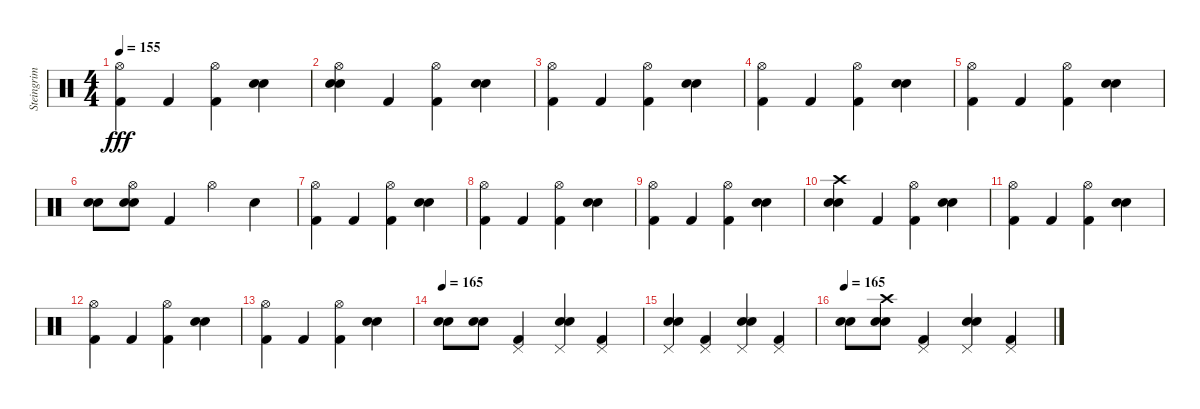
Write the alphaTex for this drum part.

\track ("Steingrim" "Steingrim") {instrument percussion}
\staff {score}
\articulation defaults
\ts (4 4)
\tempo 155
\clef neutral
\ks c
("Hi-Hat (open)" "Kick (hit) 2").4{dy fff} "Kick (hit) 2".4 ("Hi-Hat (open)" "Kick (hit) 2").4 ("Snare (hit) 2" "Electric Snare (hit)").4 |
("Hi-Hat (open)" "Electric Snare (hit)" "Snare (hit) 2").4 "Kick (hit) 2".4 ("Hi-Hat (open)" "Kick (hit) 2").4 ("Snare (hit) 2" "Electric Snare (hit)").4 |
("Hi-Hat (open)" "Kick (hit) 2").4 "Kick (hit) 2".4 ("Hi-Hat (open)" "Kick (hit) 2").4 ("Snare (hit) 2" "Electric Snare (hit)").4 |
("Hi-Hat (open)" "Kick (hit) 2").4 "Kick (hit) 2".4 ("Hi-Hat (open)" "Kick (hit) 2").4 ("Snare (hit) 2" "Electric Snare (hit)").4 |
("Hi-Hat (open)" "Kick (hit) 2").4 "Kick (hit) 2".4 ("Hi-Hat (open)" "Kick (hit) 2").4 ("Snare (hit) 2" "Electric Snare (hit)").4 |
("Electric Snare (hit)" "Snare (hit) 2").8 ("Electric Snare (hit)" "Snare (hit) 2" "Hi-Hat (open)").8 "Kick (hit) 2".4 "Hi-Hat (open)".4 "Snare (hit) 2".4 |
("Hi-Hat (open)" "Kick (hit) 2").4 "Kick (hit) 2".4 ("Hi-Hat (open)" "Kick (hit) 2").4 ("Snare (hit) 2" "Electric Snare (hit)").4 |
("Hi-Hat (open)" "Kick (hit) 2").4 "Kick (hit) 2".4 ("Hi-Hat (open)" "Kick (hit) 2").4 ("Snare (hit) 2" "Electric Snare (hit)").4 |
("Hi-Hat (open)" "Kick (hit) 2").4 "Kick (hit) 2".4 ("Hi-Hat (open)" "Kick (hit) 2").4 ("Snare (hit) 2" "Electric Snare (hit)").4 |
("Snare (hit) 2" "Electric Snare (hit)" "Crash high (hit)").4 "Kick (hit) 2".4 ("Hi-Hat (open)" "Kick (hit) 2").4 ("Snare (hit) 2" "Electric Snare (hit)").4 |
("Hi-Hat (open)" "Kick (hit) 2").4 "Kick (hit) 2".4 ("Hi-Hat (open)" "Kick (hit) 2").4 ("Snare (hit) 2" "Electric Snare (hit)").4 |
("Hi-Hat (open)" "Kick (hit) 2").4 "Kick (hit) 2".4 ("Hi-Hat (open)" "Kick (hit) 2").4 ("Snare (hit) 2" "Electric Snare (hit)").4 |
("Hi-Hat (open)" "Kick (hit) 2").4 "Kick (hit) 2".4 ("Hi-Hat (open)" "Kick (hit) 2").4 ("Snare (hit) 2" "Electric Snare (hit)").4 |
\tempo 165
("Electric Snare (hit)" "Snare (hit) 2").8 ("Electric Snare (hit)" "Snare (hit) 2").8 ("Kick (hit) 2" "Pedal Hi-Hat (hit)").4 ("Snare (hit) 2" "Electric Snare (hit)" "Pedal Hi-Hat (hit)").4 ("Kick (hit) 2" "Pedal Hi-Hat (hit)").4 |
("Snare (hit) 2" "Electric Snare (hit)" "Pedal Hi-Hat (hit)").4 ("Kick (hit) 2" "Pedal Hi-Hat (hit)").4 ("Snare (hit) 2" "Electric Snare (hit)" "Pedal Hi-Hat (hit)").4 ("Kick (hit) 2" "Pedal Hi-Hat (hit)").4 |
\tempo 165
("Electric Snare (hit)" "Snare (hit) 2").8 ("Electric Snare (hit)" "Snare (hit) 2" "Crash high (hit)").8 ("Kick (hit) 2" "Pedal Hi-Hat (hit)").4 ("Snare (hit) 2" "Electric Snare (hit)" "Pedal Hi-Hat (hit)").4 ("Kick (hit) 2" "Pedal Hi-Hat (hit)").4
